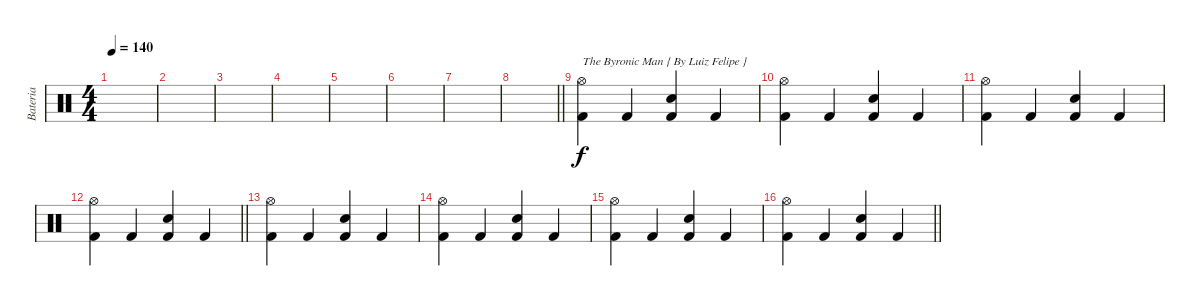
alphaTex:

\track ("Bateria" "Bateria") {instrument percussion}
\staff {score}
\articulation defaults
\ts (4 4)
\tempo 140
\clef neutral
\ks c
|
|
|
|
|
|
|
\barLineRight lightlight
|
("Kick (hit) 2" "Hi-Hat (open)").4{txt "The Byronic Man { By Luiz Felipe }"} "Kick (hit) 2".4 ("Kick (hit) 2" "Electric Snare (hit)").4 "Kick (hit) 2".4 |
("Kick (hit) 2" "Hi-Hat (open)").4 "Kick (hit) 2".4 ("Kick (hit) 2" "Electric Snare (hit)").4 "Kick (hit) 2".4 |
("Kick (hit) 2" "Hi-Hat (open)").4 "Kick (hit) 2".4 ("Kick (hit) 2" "Electric Snare (hit)").4 "Kick (hit) 2".4 |
\barLineRight lightlight
("Kick (hit) 2" "Hi-Hat (open)").4 "Kick (hit) 2".4 ("Kick (hit) 2" "Electric Snare (hit)").4 "Kick (hit) 2".4 |
("Kick (hit) 2" "Hi-Hat (open)").4 "Kick (hit) 2".4 ("Kick (hit) 2" "Electric Snare (hit)").4 "Kick (hit) 2".4 |
("Kick (hit) 2" "Hi-Hat (open)").4 "Kick (hit) 2".4 ("Kick (hit) 2" "Electric Snare (hit)").4 "Kick (hit) 2".4 |
("Kick (hit) 2" "Hi-Hat (open)").4 "Kick (hit) 2".4 ("Kick (hit) 2" "Electric Snare (hit)").4 "Kick (hit) 2".4 |
\barLineRight lightlight
("Kick (hit) 2" "Hi-Hat (open)").4 "Kick (hit) 2".4 ("Kick (hit) 2" "Electric Snare (hit)").4 "Kick (hit) 2".4
